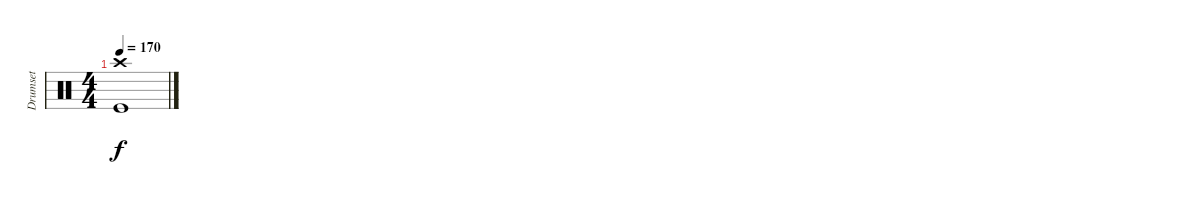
\track ("Drumset" "Drumset") {instrument percussion}
\staff {score}
\articulation defaults
\ts (4 4)
\tempo 170
\clef neutral
\ks c
("Crash high (hit)" "Kick (hit)").1{dy f}
